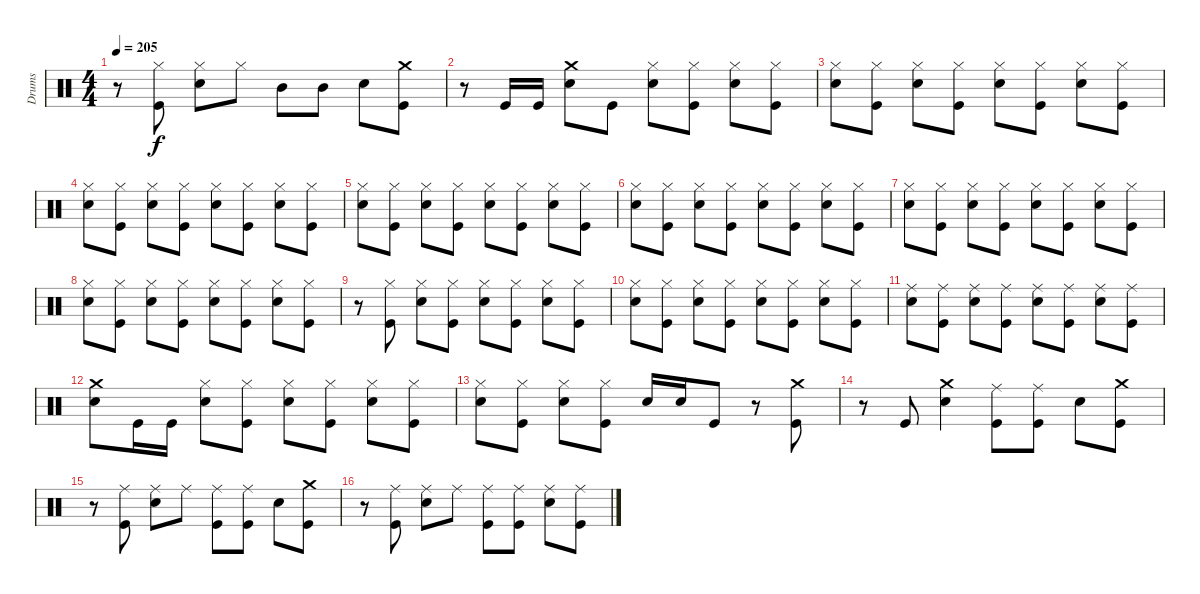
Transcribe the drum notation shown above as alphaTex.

\track ("Drums" "Drums") {instrument percussion}
\staff {score}
\articulation defaults
\ts (4 4)
\tempo 205
\clef neutral
\ks c
r.8{dy f} ("Hi-Hat (closed)" "Kick (hit)").8 ("Hi-Hat (closed)" "Electric Snare (hit)").8 "Hi-Hat (closed)".8 "Mid Tom (hit)".8 "Mid Tom (hit)".8 "Electric Snare (hit)".8 ("Crash medium (hit)" "Kick (hit)").8 |
r.8 "Kick (hit)".16 "Kick (hit)".16 ("Crash medium (hit)" "Electric Snare (hit)").8 "Kick (hit)".8 ("Hi-Hat (closed)" "Electric Snare (hit)").8 ("Hi-Hat (closed)" "Kick (hit)").8 ("Hi-Hat (closed)" "Electric Snare (hit)").8 ("Hi-Hat (closed)" "Kick (hit)").8 |
("Hi-Hat (closed)" "Electric Snare (hit)").8 ("Hi-Hat (closed)" "Kick (hit)").8 ("Hi-Hat (closed)" "Electric Snare (hit)").8 ("Hi-Hat (closed)" "Kick (hit)").8 ("Hi-Hat (closed)" "Electric Snare (hit)").8 ("Hi-Hat (closed)" "Kick (hit)").8 ("Hi-Hat (closed)" "Electric Snare (hit)").8 ("Hi-Hat (closed)" "Kick (hit)").8 |
("Hi-Hat (closed)" "Electric Snare (hit)").8 ("Hi-Hat (closed)" "Kick (hit)").8 ("Hi-Hat (closed)" "Electric Snare (hit)").8 ("Hi-Hat (closed)" "Kick (hit)").8 ("Hi-Hat (closed)" "Electric Snare (hit)").8 ("Hi-Hat (closed)" "Kick (hit)").8 ("Hi-Hat (closed)" "Electric Snare (hit)").8 ("Hi-Hat (closed)" "Kick (hit)").8 |
("Hi-Hat (closed)" "Electric Snare (hit)").8 ("Hi-Hat (closed)" "Kick (hit)").8 ("Hi-Hat (closed)" "Electric Snare (hit)").8 ("Hi-Hat (closed)" "Kick (hit)").8 ("Hi-Hat (closed)" "Electric Snare (hit)").8 ("Hi-Hat (closed)" "Kick (hit)").8 ("Hi-Hat (closed)" "Electric Snare (hit)").8 ("Hi-Hat (closed)" "Kick (hit)").8 |
("Hi-Hat (closed)" "Electric Snare (hit)").8 ("Hi-Hat (closed)" "Kick (hit)").8 ("Hi-Hat (closed)" "Electric Snare (hit)").8 ("Hi-Hat (closed)" "Kick (hit)").8 ("Hi-Hat (closed)" "Electric Snare (hit)").8 ("Hi-Hat (closed)" "Kick (hit)").8 ("Hi-Hat (closed)" "Electric Snare (hit)").8 ("Hi-Hat (closed)" "Kick (hit)").8 |
("Hi-Hat (closed)" "Electric Snare (hit)").8 ("Hi-Hat (closed)" "Kick (hit)").8 ("Hi-Hat (closed)" "Electric Snare (hit)").8 ("Hi-Hat (closed)" "Kick (hit)").8 ("Hi-Hat (closed)" "Electric Snare (hit)").8 ("Hi-Hat (closed)" "Kick (hit)").8 ("Hi-Hat (closed)" "Electric Snare (hit)").8 ("Hi-Hat (closed)" "Kick (hit)").8 |
("Hi-Hat (closed)" "Electric Snare (hit)").8 ("Hi-Hat (closed)" "Kick (hit)").8 ("Hi-Hat (closed)" "Electric Snare (hit)").8 ("Hi-Hat (closed)" "Kick (hit)").8 ("Hi-Hat (closed)" "Electric Snare (hit)").8 ("Hi-Hat (closed)" "Kick (hit)").8 ("Hi-Hat (closed)" "Electric Snare (hit)").8 ("Hi-Hat (closed)" "Kick (hit)").8 |
r.8 ("Hi-Hat (closed)" "Kick (hit)").8 ("Hi-Hat (closed)" "Electric Snare (hit)").8 ("Hi-Hat (closed)" "Kick (hit)").8 ("Hi-Hat (closed)" "Electric Snare (hit)").8 ("Hi-Hat (closed)" "Kick (hit)").8 ("Hi-Hat (closed)" "Electric Snare (hit)").8 ("Hi-Hat (closed)" "Kick (hit)").8 |
("Hi-Hat (closed)" "Electric Snare (hit)").8 ("Hi-Hat (closed)" "Kick (hit)").8 ("Hi-Hat (closed)" "Electric Snare (hit)").8 ("Hi-Hat (closed)" "Kick (hit)").8 ("Hi-Hat (closed)" "Electric Snare (hit)").8 ("Hi-Hat (closed)" "Kick (hit)").8 ("Hi-Hat (closed)" "Electric Snare (hit)").8 ("Hi-Hat (closed)" "Kick (hit)").8 |
("Electric Snare (hit)" "Ride (middle)").8 ("Ride (middle)" "Kick (hit)").8 ("Ride (middle)" "Electric Snare (hit)").8 ("Kick (hit)" "Ride (middle)").8 ("Electric Snare (hit)" "Ride (middle)").8 ("Ride (middle)" "Kick (hit)").8 ("Ride (middle)" "Electric Snare (hit)").8 ("Kick (hit)" "Ride (middle)").8 |
("Crash medium (hit)" "Electric Snare (hit)").8 "Kick (hit)".16 "Kick (hit)".16 ("Hi-Hat (closed)" "Electric Snare (hit)").8 ("Hi-Hat (closed)" "Kick (hit)").8 ("Hi-Hat (closed)" "Electric Snare (hit)").8 ("Hi-Hat (closed)" "Kick (hit)").8 ("Hi-Hat (closed)" "Electric Snare (hit)").8 ("Hi-Hat (closed)" "Kick (hit)").8 |
("Hi-Hat (closed)" "Electric Snare (hit)").8 ("Hi-Hat (closed)" "Kick (hit)").8 ("Hi-Hat (closed)" "Electric Snare (hit)").8 ("Hi-Hat (closed)" "Kick (hit)").8 "Electric Snare (hit)".16 "Electric Snare (hit)".16 "Kick (hit)".8 r.8 ("Crash medium (hit)" "Kick (hit)").8 |
r.8 "Kick (hit)".8 ("Crash medium (hit)" "Electric Snare (hit)").4 ("Ride (middle)" "Kick (hit)").8 ("Ride (middle)" "Kick (hit)").8 "Electric Snare (hit)".8 ("Crash medium (hit)" "Kick (hit)").8 |
r.8 ("Ride (middle)" "Kick (hit)").8 ("Ride (middle)" "Electric Snare (hit)").8 "Ride (middle)".8 ("Ride (middle)" "Kick (hit)").8 ("Ride (middle)" "Kick (hit)").8 "Electric Snare (hit)".8 ("Crash medium (hit)" "Kick (hit)").8 |
r.8 ("Ride (middle)" "Kick (hit)").8 ("Ride (middle)" "Electric Snare (hit)").8 "Ride (middle)".8 ("Ride (middle)" "Kick (hit)").8 ("Ride (middle)" "Kick (hit)").8 ("Ride (middle)" "Electric Snare (hit)").8 ("Ride (middle)" "Kick (hit)").8
